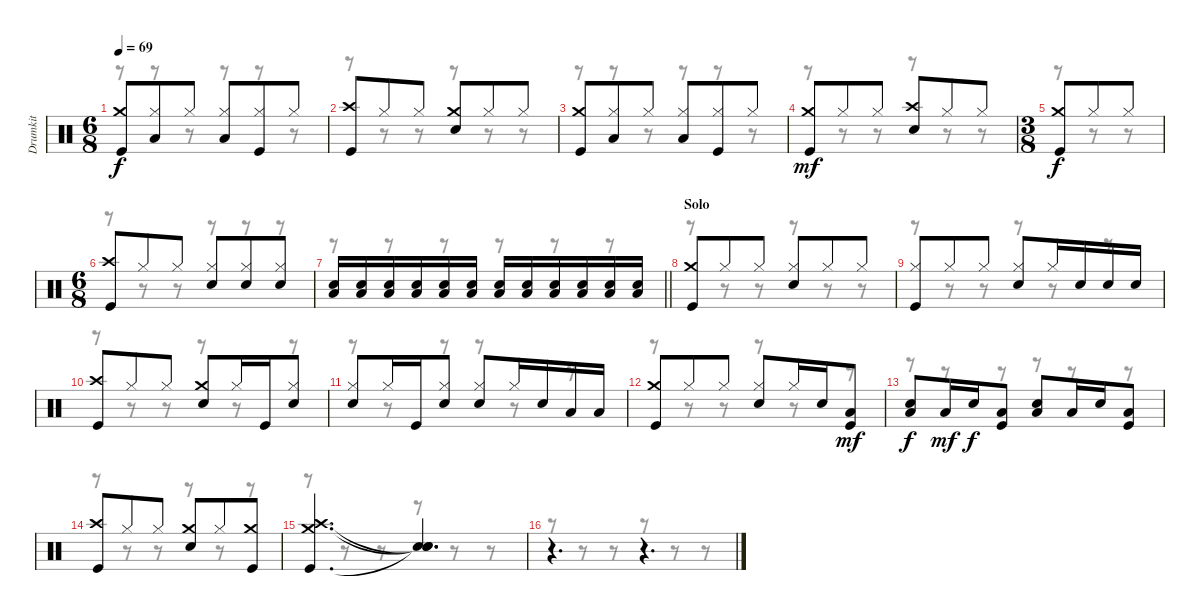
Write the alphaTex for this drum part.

\track ("Drumkit" "Drumkit") {instrument percussion}
\staff {score}
\articulation defaults
\voice
\ts (6 8)
\tempo 69
\clef neutral
\ks c
("Crash medium (hit)" "Kick (hit)").8{dy f} ("Hi-Hat (closed)" "Low Tom (hit)").8 "Hi-Hat (closed)".8 ("Hi-Hat (closed)" "Low Tom (hit)").8 ("Hi-Hat (closed)" "Kick (hit)").8 "Hi-Hat (closed)".8 |
("Crash high (hit)" "Kick (hit)").8 "Hi-Hat (closed)".8 "Hi-Hat (closed)".8 ("Crash medium (hit)" "Snare (hit) 2").8 "Hi-Hat (closed)".8 "Hi-Hat (closed)".8 |
("Crash medium (hit)" "Kick (hit)").8 ("Hi-Hat (closed)" "Low Tom (hit)").8 "Hi-Hat (closed)".8 ("Hi-Hat (closed)" "Low Tom (hit)").8 ("Hi-Hat (closed)" "Kick (hit)").8 "Hi-Hat (closed)".8 |
("Kick (hit)" "Crash medium (hit)").8{dy mf} "Hi-Hat (closed)".8 "Hi-Hat (closed)".8 ("Crash high (hit)" "Snare (hit) 2").8 "Hi-Hat (closed)".8 "Hi-Hat (closed)".8 |
\ts (3 8)
("Crash medium (hit)" "Kick (hit)").8{dy f} "Hi-Hat (closed)".8 "Hi-Hat (closed)".8 |
\ts (6 8)
("Crash high (hit)" "Kick (hit)").8 "Hi-Hat (closed)".8 "Hi-Hat (closed)".8 ("Snare (hit) 2" "Hi-Hat (closed)").8 ("Snare (hit) 2" "Hi-Hat (closed)").8 ("Snare (hit) 2" "Hi-Hat (closed)").8 |
\barLineRight lightlight
("Low Tom (hit)" "Snare (hit) 2").16 ("Low Tom (hit)" "Snare (hit) 2").16 ("Low Tom (hit)" "Snare (hit) 2").16 ("Low Tom (hit)" "Snare (hit) 2").16 ("Low Tom (hit)" "Snare (hit) 2").16 ("Low Tom (hit)" "Snare (hit) 2").16 ("Low Tom (hit)" "Snare (hit) 2").16 ("Low Tom (hit)" "Snare (hit) 2").16 ("Low Floor Tom (hit)" "Snare (hit) 2").16 ("Low Floor Tom (hit)" "Snare (hit) 2").16 ("Low Floor Tom (hit)" "Snare (hit) 2").16 ("Low Floor Tom (hit)" "Snare (hit) 2").16 |
\section ("" "Solo")
("Crash medium (hit)" "Kick (hit)").8 "Hi-Hat (closed)".8 "Hi-Hat (closed)".8 ("Hi-Hat (closed)" "Snare (hit) 2").8 "Hi-Hat (closed)".8 "Hi-Hat (closed)".8 |
("Hi-Hat (closed)" "Kick (hit)").8 "Hi-Hat (closed)".8 "Hi-Hat (closed)".8 ("Hi-Hat (closed)" "Snare (hit) 2").8 "Hi-Hat (closed)".16 "Snare (hit) 2".16 "Snare (hit) 2".16 "Snare (hit) 2".16 |
("Crash high (hit)" "Kick (hit)").8 "Hi-Hat (closed)".8 "Hi-Hat (closed)".8 ("Crash medium (hit)" "Snare (hit) 2").8 "Hi-Hat (closed)".16 "Kick (hit)".16 ("Hi-Hat (closed)" "Snare (hit) 2").8 |
("Hi-Hat (closed)" "Snare (hit) 2").8 "Hi-Hat (closed)".16 "Kick (hit)".16 ("Hi-Hat (closed)" "Snare (hit) 2").8 ("Hi-Hat (closed)" "Snare (hit) 2").8 "Hi-Hat (closed)".16 "Snare (hit) 2".16 "Low Tom (hit)".16 "Low Tom (hit)".16 |
("Crash medium (hit)" "Kick (hit)").8 "Hi-Hat (closed)".8 "Hi-Hat (closed)".8 ("Hi-Hat (closed)" "Snare (hit) 2").8 "Hi-Hat (closed)".16 "Snare (hit) 2".16 ("Low Tom (hit)" "Kick (hit)").8{dy mf} |
("Low Tom (hit)" "Snare (hit) 2").8{dy f} "Low Tom (hit)".16{dy mf} "Snare (hit) 2".16{dy f} ("Kick (hit)" "Low Tom (hit)").8 ("Low Tom (hit)" "Snare (hit) 2").8 "Low Tom (hit)".16 "Snare (hit) 2".16 ("Kick (hit)" "Low Tom (hit)").8 |
("Crash high (hit)" "Kick (hit)").8 "Hi-Hat (closed)".8 "Hi-Hat (closed)".8 ("Crash medium (hit)" "Snare (hit) 2").8 "Hi-Hat (closed)".8 ("Crash medium (hit)" "Kick (hit)").8 |
("Crash medium (hit)" "Crash high (hit)" "Kick (hit)").4{d} ("Snare (hit)"{t} "Snare (hit)"{t} "Snare (hit)"{t}).4{d} |
r.4{d} r.4{d}
\voice
\clef neutral
\ottava regular
\simile none
\ks c
r.8{dy f} r.8 r.8 r.8 r.8 r.8 |
r.8 r.8 r.8 r.8 r.8 r.8 |
r.8 r.8 r.8 r.8 r.8 r.8 |
r.8 r.8 r.8 r.8 r.8 r.8 |
r.8 r.8 r.8 |
r.8 r.8 r.8 r.8 r.8 r.8 |
\barLineRight lightlight
r.8 r.8 r.8 r.8 r.8 r.8 |
r.8 r.8 r.8 r.8 r.8 r.8 |
r.8 r.8 r.8 r.8 r.8 r.8 |
r.8 r.8 r.8 r.8 r.8 r.8 |
r.8 r.8 r.8 r.8 r.8 r.8 |
r.8 r.8 r.8 r.8 r.8 r.8 |
r.8 r.8 r.8 r.8 r.8 r.8 |
r.8 r.8 r.8 r.8 r.8 r.8 |
r.8 r.8 r.8 r.8 r.8 r.8 |
r.8 r.8 r.8 r.8 r.8 r.8
